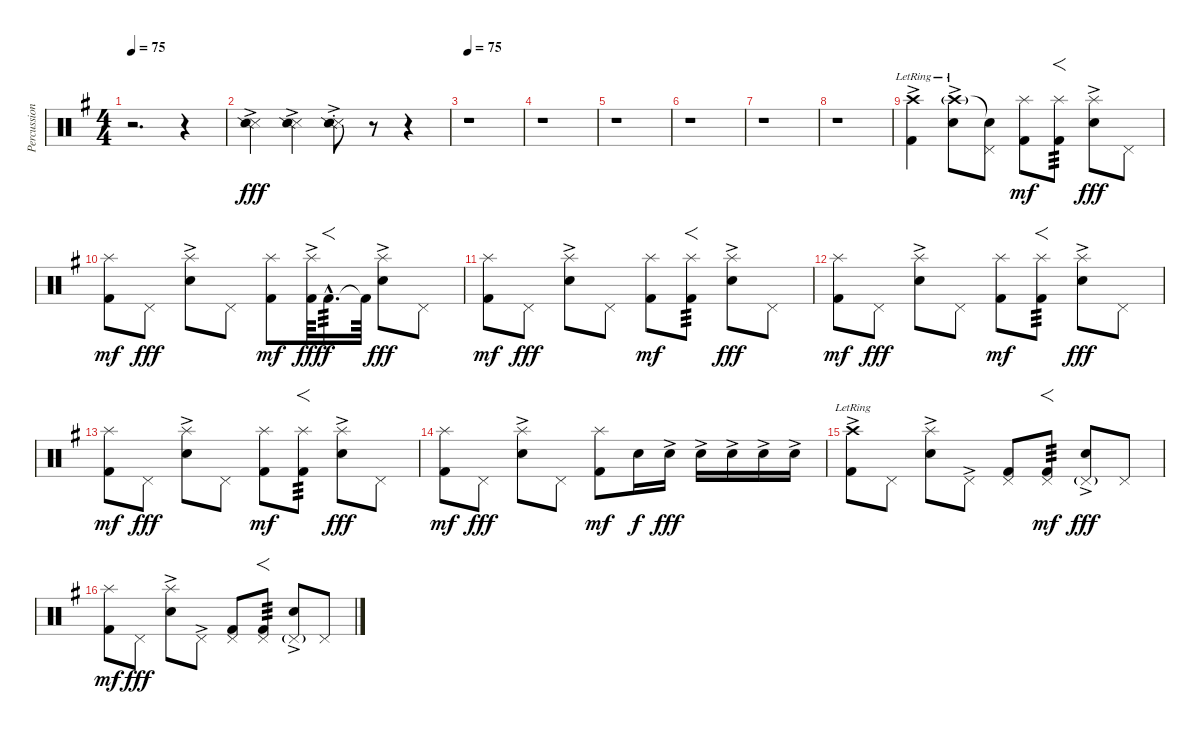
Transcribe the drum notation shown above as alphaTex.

\track ("Percussion" "Percussion") {instrument percussion}
\staff {score}
\articulation defaults
\ts (4 4)
\tempo 75
\clef neutral
\ks g
r.2{d dy fff} r.4 |
("Snare (side stick) 3"{ac} "Snare (side stick) 2"{ac}).4 ("Snare (side stick) 3"{ac} "Snare (side stick) 2"{ac}).4 ("Snare (side stick) 3"{ac st} "Snare (side stick) 2"{ac st}).8 r.8 r.4 |
\tempo 75
r.1 |
r.1 |
r.1 |
r.1 |
r.1 |
r.1 |
("Crash high (hit)"{ac lr} "Kick (hit) 2").4{volume 16 balance 8} ("Crash high (hit)"{g lr} "Electric Snare (hit)"{ac}).8{volume 12} ("Snare (hit)"{t} "Pedal Hi-Hat (hit)").8 ("Splash (hit)" "Kick (hit) 2").8{dy mf} ("Splash (hit)" "Kick (hit) 2").8{f tp 3} ("Splash (hit)" "Electric Snare (hit)"{ac}).8{dy fff} "Pedal Hi-Hat (hit)".8 |
("Splash (hit)" "Kick (hit) 2").8{dy mf} "Pedal Hi-Hat (hit)".8{dy fff} ("Splash (hit)" "Electric Snare (hit)"{ac}).8 "Pedal Hi-Hat (hit)".8 ("Splash (hit)" "Kick (hit) 2").8{dy mf} ("Splash (hit)" "Kick (hit) 2"{ac}).64{dy fff} "Kick (hit) 2"{hac}.16{f d tp 3 dy f} "Kick (hit) 2"{t}.64 ("Splash (hit)" "Electric Snare (hit)"{ac}).8{dy fff} "Pedal Hi-Hat (hit)".8 |
("Splash (hit)" "Kick (hit) 2").8{dy mf} "Pedal Hi-Hat (hit)".8{dy fff} ("Splash (hit)" "Electric Snare (hit)"{ac}).8 "Pedal Hi-Hat (hit)".8 ("Splash (hit)" "Kick (hit) 2").8{dy mf} ("Splash (hit)" "Kick (hit) 2").8{f tp 3} ("Splash (hit)" "Electric Snare (hit)"{ac}).8{dy fff} "Pedal Hi-Hat (hit)".8 |
("Splash (hit)" "Kick (hit) 2").8{dy mf} "Pedal Hi-Hat (hit)".8{dy fff} ("Splash (hit)" "Electric Snare (hit)"{ac}).8 "Pedal Hi-Hat (hit)".8 ("Splash (hit)" "Kick (hit) 2").8{dy mf} ("Splash (hit)" "Kick (hit) 2").8{f tp 3} ("Splash (hit)" "Electric Snare (hit)"{ac}).8{dy fff} "Pedal Hi-Hat (hit)".8 |
("Splash (hit)" "Kick (hit) 2").8{dy mf} "Pedal Hi-Hat (hit)".8{dy fff} ("Splash (hit)" "Electric Snare (hit)"{ac}).8 "Pedal Hi-Hat (hit)".8 ("Splash (hit)" "Kick (hit) 2").8{dy mf} ("Splash (hit)" "Kick (hit) 2").8{f tp 3} ("Splash (hit)" "Electric Snare (hit)"{ac}).8{dy fff} "Pedal Hi-Hat (hit)".8 |
("Splash (hit)" "Kick (hit) 2").8{dy mf} "Pedal Hi-Hat (hit)".8{dy fff} ("Splash (hit)" "Electric Snare (hit)"{ac}).8 "Pedal Hi-Hat (hit)".8 ("Splash (hit)" "Kick (hit) 2").8{dy mf} "Electric Snare (hit)".16{dy f} "Electric Snare (hit)"{ac}.16{dy fff} "Electric Snare (hit)"{ac}.16{volume 16} "Electric Snare (hit)"{ac}.16{volume 16} "Electric Snare (hit)"{ac}.16{volume 16} "Electric Snare (hit)"{ac}.16{volume 16} |
("Crash high (hit)"{lr} "Kick (hit) 2"{ac}).8{volume 12} "Pedal Hi-Hat (hit)".8 ("Splash (hit)" "Electric Snare (hit)"{ac}).8 "Pedal Hi-Hat (hit)"{ac}.8 ("Pedal Hi-Hat (hit)" "Kick (hit) 2").8 ("Pedal Hi-Hat (hit)" "Kick (hit) 2").8{f tp 3 dy mf} ("Pedal Hi-Hat (hit)"{g} "Electric Snare (hit)"{ac}).8{dy fff} "Pedal Hi-Hat (hit)".8 |
("Splash (hit)" "Kick (hit) 2").8{dy mf} "Pedal Hi-Hat (hit)".8{dy fff} ("Splash (hit)" "Electric Snare (hit)"{ac}).8 "Pedal Hi-Hat (hit)"{ac}.8 ("Pedal Hi-Hat (hit)" "Kick (hit) 2").8 ("Pedal Hi-Hat (hit)" "Kick (hit) 2").8{f tp 3} ("Pedal Hi-Hat (hit)"{g} "Electric Snare (hit)"{ac}).8 "Pedal Hi-Hat (hit)".8
